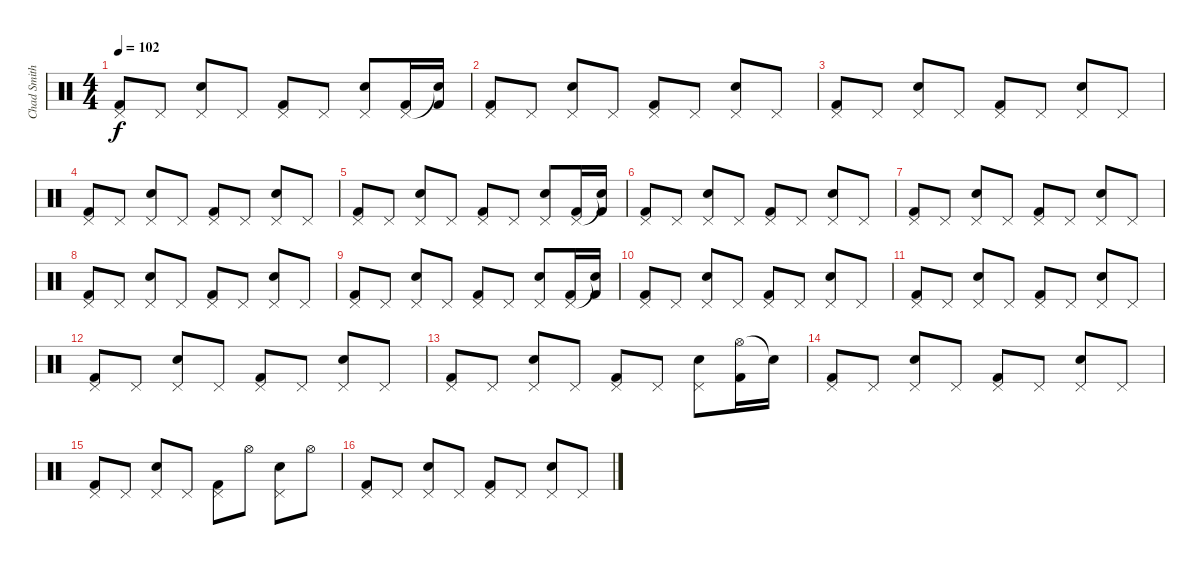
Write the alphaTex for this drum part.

\track ("Chad Smith (Batterie)" "Chad Smith") {instrument percussion}
\staff {score}
\articulation defaults
\ts (4 4)
\tempo 102
\clef neutral
\ks c
("Pedal Hi-Hat (hit)" "Kick (hit) 2").8{dy f} "Pedal Hi-Hat (hit)".8 ("Pedal Hi-Hat (hit)" "Electric Snare (hit)").8 "Pedal Hi-Hat (hit)".8 ("Pedal Hi-Hat (hit)" "Kick (hit) 2").8 "Pedal Hi-Hat (hit)".8 ("Pedal Hi-Hat (hit)" "Electric Snare (hit)").8 ("Pedal Hi-Hat (hit)" "Kick (hit) 2").16 ("Snare (hit)"{t} "Kick (hit) 2").16 |
("Pedal Hi-Hat (hit)" "Kick (hit) 2").8 "Pedal Hi-Hat (hit)".8 ("Pedal Hi-Hat (hit)" "Electric Snare (hit)").8 "Pedal Hi-Hat (hit)".8 ("Pedal Hi-Hat (hit)" "Kick (hit) 2").8 "Pedal Hi-Hat (hit)".8 ("Pedal Hi-Hat (hit)" "Electric Snare (hit)").8 "Pedal Hi-Hat (hit)".8 |
("Pedal Hi-Hat (hit)" "Kick (hit) 2").8 "Pedal Hi-Hat (hit)".8 ("Pedal Hi-Hat (hit)" "Electric Snare (hit)").8 "Pedal Hi-Hat (hit)".8 ("Pedal Hi-Hat (hit)" "Kick (hit) 2").8 "Pedal Hi-Hat (hit)".8 ("Pedal Hi-Hat (hit)" "Electric Snare (hit)").8 "Pedal Hi-Hat (hit)".8 |
("Pedal Hi-Hat (hit)" "Kick (hit) 2").8 "Pedal Hi-Hat (hit)".8 ("Pedal Hi-Hat (hit)" "Electric Snare (hit)").8 "Pedal Hi-Hat (hit)".8 ("Pedal Hi-Hat (hit)" "Kick (hit) 2").8 "Pedal Hi-Hat (hit)".8 ("Pedal Hi-Hat (hit)" "Electric Snare (hit)").8 "Pedal Hi-Hat (hit)".8 |
("Pedal Hi-Hat (hit)" "Kick (hit) 2").8 "Pedal Hi-Hat (hit)".8 ("Pedal Hi-Hat (hit)" "Electric Snare (hit)").8 "Pedal Hi-Hat (hit)".8 ("Pedal Hi-Hat (hit)" "Kick (hit) 2").8 "Pedal Hi-Hat (hit)".8 ("Pedal Hi-Hat (hit)" "Electric Snare (hit)").8 ("Pedal Hi-Hat (hit)" "Kick (hit) 2").16 ("Snare (hit)"{t} "Kick (hit) 2").16 |
("Pedal Hi-Hat (hit)" "Kick (hit) 2").8 "Pedal Hi-Hat (hit)".8 ("Pedal Hi-Hat (hit)" "Electric Snare (hit)").8 "Pedal Hi-Hat (hit)".8 ("Pedal Hi-Hat (hit)" "Kick (hit) 2").8 "Pedal Hi-Hat (hit)".8 ("Pedal Hi-Hat (hit)" "Electric Snare (hit)").8 "Pedal Hi-Hat (hit)".8 |
("Pedal Hi-Hat (hit)" "Kick (hit) 2").8 "Pedal Hi-Hat (hit)".8 ("Pedal Hi-Hat (hit)" "Electric Snare (hit)").8 "Pedal Hi-Hat (hit)".8 ("Pedal Hi-Hat (hit)" "Kick (hit) 2").8 "Pedal Hi-Hat (hit)".8 ("Pedal Hi-Hat (hit)" "Electric Snare (hit)").8 "Pedal Hi-Hat (hit)".8 |
("Pedal Hi-Hat (hit)" "Kick (hit) 2").8 "Pedal Hi-Hat (hit)".8 ("Pedal Hi-Hat (hit)" "Electric Snare (hit)").8 "Pedal Hi-Hat (hit)".8 ("Pedal Hi-Hat (hit)" "Kick (hit) 2").8 "Pedal Hi-Hat (hit)".8 ("Pedal Hi-Hat (hit)" "Electric Snare (hit)").8 "Pedal Hi-Hat (hit)".8 |
("Pedal Hi-Hat (hit)" "Kick (hit) 2").8 "Pedal Hi-Hat (hit)".8 ("Pedal Hi-Hat (hit)" "Electric Snare (hit)").8 "Pedal Hi-Hat (hit)".8 ("Pedal Hi-Hat (hit)" "Kick (hit) 2").8 "Pedal Hi-Hat (hit)".8 ("Pedal Hi-Hat (hit)" "Electric Snare (hit)").8 ("Pedal Hi-Hat (hit)" "Kick (hit) 2").16 ("Snare (hit)"{t} "Kick (hit) 2").16 |
("Pedal Hi-Hat (hit)" "Kick (hit) 2").8 "Pedal Hi-Hat (hit)".8 ("Pedal Hi-Hat (hit)" "Electric Snare (hit)").8 "Pedal Hi-Hat (hit)".8 ("Pedal Hi-Hat (hit)" "Kick (hit) 2").8 "Pedal Hi-Hat (hit)".8 ("Pedal Hi-Hat (hit)" "Electric Snare (hit)").8 "Pedal Hi-Hat (hit)".8 |
("Pedal Hi-Hat (hit)" "Kick (hit) 2").8 "Pedal Hi-Hat (hit)".8 ("Pedal Hi-Hat (hit)" "Electric Snare (hit)").8 "Pedal Hi-Hat (hit)".8 ("Pedal Hi-Hat (hit)" "Kick (hit) 2").8 "Pedal Hi-Hat (hit)".8 ("Pedal Hi-Hat (hit)" "Electric Snare (hit)").8 "Pedal Hi-Hat (hit)".8 |
("Pedal Hi-Hat (hit)" "Kick (hit) 2").8 "Pedal Hi-Hat (hit)".8 ("Pedal Hi-Hat (hit)" "Electric Snare (hit)").8 "Pedal Hi-Hat (hit)".8 ("Pedal Hi-Hat (hit)" "Kick (hit) 2").8 "Pedal Hi-Hat (hit)".8 ("Pedal Hi-Hat (hit)" "Electric Snare (hit)").8 "Pedal Hi-Hat (hit)".8 |
("Pedal Hi-Hat (hit)" "Kick (hit) 2").8 "Pedal Hi-Hat (hit)".8 ("Pedal Hi-Hat (hit)" "Electric Snare (hit)").8 "Pedal Hi-Hat (hit)".8 ("Pedal Hi-Hat (hit)" "Kick (hit) 2").8 "Pedal Hi-Hat (hit)".8 ("Pedal Hi-Hat (hit)" "Electric Snare (hit)").8 ("Hi-Hat (open)" "Kick (hit) 2").16 "Snare (hit)"{t}.16 |
("Pedal Hi-Hat (hit)" "Kick (hit) 2").8 "Pedal Hi-Hat (hit)".8 ("Pedal Hi-Hat (hit)" "Electric Snare (hit)").8 "Pedal Hi-Hat (hit)".8 ("Pedal Hi-Hat (hit)" "Kick (hit) 2").8 "Pedal Hi-Hat (hit)".8 ("Pedal Hi-Hat (hit)" "Electric Snare (hit)").8 "Pedal Hi-Hat (hit)".8 |
("Pedal Hi-Hat (hit)" "Kick (hit) 2").8 "Pedal Hi-Hat (hit)".8 ("Pedal Hi-Hat (hit)" "Electric Snare (hit)").8 "Pedal Hi-Hat (hit)".8 ("Pedal Hi-Hat (hit)" "Kick (hit) 2").8 "Hi-Hat (open)".8 ("Pedal Hi-Hat (hit)" "Electric Snare (hit)").8 "Hi-Hat (open)".8 |
("Pedal Hi-Hat (hit)" "Kick (hit) 2").8 "Pedal Hi-Hat (hit)".8 ("Pedal Hi-Hat (hit)" "Electric Snare (hit)").8 "Pedal Hi-Hat (hit)".8 ("Pedal Hi-Hat (hit)" "Kick (hit) 2").8 "Pedal Hi-Hat (hit)".8 ("Pedal Hi-Hat (hit)" "Electric Snare (hit)").8 "Pedal Hi-Hat (hit)".8
